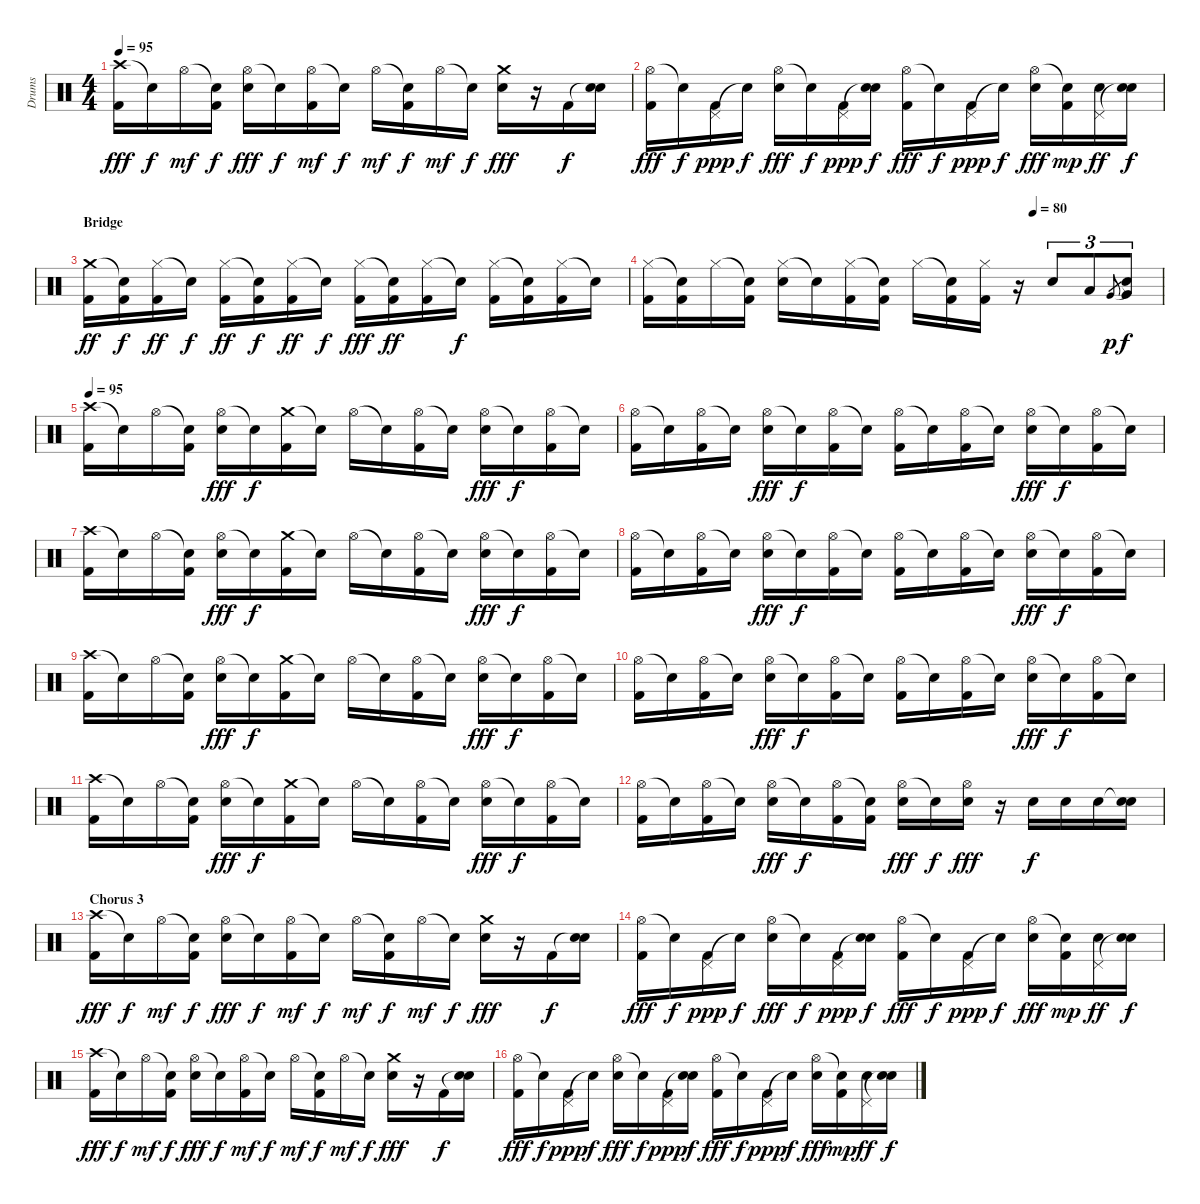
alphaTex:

\track ("Drums" "Drums") {instrument percussion}
\staff {score}
\articulation defaults
\ts (4 4)
\tempo 95
\clef neutral
\ks c
("Crash high (hit)" "Kick (hit) 2").16{dy fff} "Snare (hit)"{t}.16{dy f} "Hi-Hat (open)".16{dy mf} ("Snare (hit)"{t} "Kick (hit) 2").16{dy f} ("Hi-Hat (open)" "Electric Snare (hit)").16{dy fff} "Snare (hit)"{t}.16{dy f} ("Hi-Hat (open)" "Kick (hit) 2").16{dy mf} "Snare (hit)"{t}.16{dy f} "Hi-Hat (open)".16{dy mf} ("Snare (hit)"{t} "Kick (hit) 2").16{dy f} "Hi-Hat (open)".16{dy mf} "Snare (hit)"{t}.16{dy f} ("Crash medium (hit)" "Electric Snare (hit)").16{dy fff} r.16 "Kick (hit) 2".16{dy f} ("Snare (hit)"{t} "Electric Snare (hit)").16 |
("Hi-Hat (open)" "Kick (hit) 2").16{dy fff} "Snare (hit)"{t}.16{dy f} ("Pedal Hi-Hat (hit)" "Kick (hit) 2").16{dy ppp} "Snare (hit)"{t}.16{dy f} ("Hi-Hat (open)" "Electric Snare (hit)").16{dy fff} "Snare (hit)"{t}.16{dy f} ("Pedal Hi-Hat (hit)" "Kick (hit) 2").16{dy ppp} ("Snare (hit)"{t} "Electric Snare (hit)").16{dy f} ("Hi-Hat (open)" "Kick (hit) 2").16{dy fff} "Snare (hit)"{t}.16{dy f} ("Pedal Hi-Hat (hit)" "Kick (hit) 2").16{dy ppp} "Snare (hit)"{t}.16{dy f} ("Hi-Hat (open)" "Electric Snare (hit)").16{dy fff} ("Snare (hit)"{t} "Kick (hit) 2").16{dy mp} ("Pedal Hi-Hat (hit)" "Electric Snare (hit)").16{dy ff} ("Snare (hit)"{t} "Electric Snare (hit)").16{dy f} |
\section ("" "Bridge")
("Crash medium (hit)" "Kick (hit) 2").16{dy ff} ("Snare (hit)"{t} "Kick (hit) 2").16{dy f} ("Hi-Hat (closed)" "Kick (hit) 2").16{dy ff} "Snare (hit)"{t}.16{dy f} ("Hi-Hat (closed)" "Kick (hit) 2").16{dy ff} ("Snare (hit)"{t} "Kick (hit) 2").16{dy f} ("Hi-Hat (closed)" "Kick (hit) 2").16{dy ff} "Snare (hit)"{t}.16{dy f} ("Hi-Hat (closed)" "Kick (hit) 2").16{dy fff} ("Snare (hit)"{t} "Kick (hit) 2").16{dy ff} ("Hi-Hat (closed)" "Kick (hit) 2").16 "Snare (hit)"{t}.16{dy f} ("Hi-Hat (closed)" "Kick (hit) 2").16 ("Snare (hit)"{t} "Kick (hit) 2").16 ("Hi-Hat (closed)" "Kick (hit) 2").16 "Snare (hit)"{t}.16 |
\tempo (80 0.75)
("Hi-Hat (closed)" "Kick (hit) 2").16 ("Snare (hit)"{t} "Kick (hit) 2").16 "Hi-Hat (closed)".16 ("Snare (hit)"{t} "Kick (hit) 2").16 ("Hi-Hat (closed)" "Electric Snare (hit)").16 "Snare (hit)"{t}.16 ("Hi-Hat (closed)" "Kick (hit) 2").16 ("Snare (hit)"{t} "Kick (hit) 2").16 "Hi-Hat (closed)".16 ("Snare (hit)"{t} "Kick (hit) 2").16 ("Hi-Hat (closed)" "Kick (hit) 2").16 r.16 "Electric Snare (hit)".8{tu (3 2)} "Low Tom (hit)".8{tu (3 2)} "Very Low Tom (hit)".8{gr dy p} ("Snare (hit)"{t} "Very Low Tom (hit)").8{tu (3 2) dy f} |
\tempo 95
("Crash high (hit)" "Kick (hit) 2").16 "Snare (hit)"{t}.16 "Hi-Hat (open)".16 ("Snare (hit)"{t} "Kick (hit) 2").16 ("Hi-Hat (open)" "Electric Snare (hit)").16{dy fff} "Snare (hit)"{t}.16{dy f} ("Crash medium (hit)" "Kick (hit) 2").16 "Snare (hit)"{t}.16 "Hi-Hat (open)".16 "Snare (hit)"{t}.16 ("Hi-Hat (open)" "Kick (hit) 2").16 "Snare (hit)"{t}.16 ("Hi-Hat (open)" "Electric Snare (hit)").16{dy fff} "Snare (hit)"{t}.16{dy f} ("Hi-Hat (open)" "Kick (hit) 2").16 "Snare (hit)"{t}.16 |
("Hi-Hat (open)" "Kick (hit) 2").16 "Snare (hit)"{t}.16 ("Hi-Hat (open)" "Kick (hit) 2").16 "Snare (hit)"{t}.16 ("Hi-Hat (open)" "Electric Snare (hit)").16{dy fff} "Snare (hit)"{t}.16{dy f} ("Hi-Hat (open)" "Kick (hit) 2").16 "Snare (hit)"{t}.16 ("Hi-Hat (open)" "Kick (hit) 2").16 "Snare (hit)"{t}.16 ("Hi-Hat (open)" "Kick (hit) 2").16 "Snare (hit)"{t}.16 ("Hi-Hat (open)" "Electric Snare (hit)").16{dy fff} "Snare (hit)"{t}.16{dy f} ("Hi-Hat (open)" "Kick (hit) 2").16 "Snare (hit)"{t}.16 |
("Crash high (hit)" "Kick (hit) 2").16 "Snare (hit)"{t}.16 "Hi-Hat (open)".16 ("Snare (hit)"{t} "Kick (hit) 2").16 ("Hi-Hat (open)" "Electric Snare (hit)").16{dy fff} "Snare (hit)"{t}.16{dy f} ("Crash medium (hit)" "Kick (hit) 2").16 "Snare (hit)"{t}.16 "Hi-Hat (open)".16 "Snare (hit)"{t}.16 ("Hi-Hat (open)" "Kick (hit) 2").16 "Snare (hit)"{t}.16 ("Hi-Hat (open)" "Electric Snare (hit)").16{dy fff} "Snare (hit)"{t}.16{dy f} ("Hi-Hat (open)" "Kick (hit) 2").16 "Snare (hit)"{t}.16 |
("Hi-Hat (open)" "Kick (hit) 2").16 "Snare (hit)"{t}.16 ("Hi-Hat (open)" "Kick (hit) 2").16 "Snare (hit)"{t}.16 ("Hi-Hat (open)" "Electric Snare (hit)").16{dy fff} "Snare (hit)"{t}.16{dy f} ("Hi-Hat (open)" "Kick (hit) 2").16 "Snare (hit)"{t}.16 ("Hi-Hat (open)" "Kick (hit) 2").16 "Snare (hit)"{t}.16 ("Hi-Hat (open)" "Kick (hit) 2").16 "Snare (hit)"{t}.16 ("Hi-Hat (open)" "Electric Snare (hit)").16{dy fff} "Snare (hit)"{t}.16{dy f} ("Hi-Hat (open)" "Kick (hit) 2").16 "Snare (hit)"{t}.16 |
("Crash high (hit)" "Kick (hit) 2").16 "Snare (hit)"{t}.16 "Hi-Hat (open)".16 ("Snare (hit)"{t} "Kick (hit) 2").16 ("Hi-Hat (open)" "Electric Snare (hit)").16{dy fff} "Snare (hit)"{t}.16{dy f} ("Crash medium (hit)" "Kick (hit) 2").16 "Snare (hit)"{t}.16 "Hi-Hat (open)".16 "Snare (hit)"{t}.16 ("Hi-Hat (open)" "Kick (hit) 2").16 "Snare (hit)"{t}.16 ("Hi-Hat (open)" "Electric Snare (hit)").16{dy fff} "Snare (hit)"{t}.16{dy f} ("Hi-Hat (open)" "Kick (hit) 2").16 "Snare (hit)"{t}.16 |
("Hi-Hat (open)" "Kick (hit) 2").16 "Snare (hit)"{t}.16 ("Hi-Hat (open)" "Kick (hit) 2").16 "Snare (hit)"{t}.16 ("Hi-Hat (open)" "Electric Snare (hit)").16{dy fff} "Snare (hit)"{t}.16{dy f} ("Hi-Hat (open)" "Kick (hit) 2").16 "Snare (hit)"{t}.16 ("Hi-Hat (open)" "Kick (hit) 2").16 "Snare (hit)"{t}.16 ("Hi-Hat (open)" "Kick (hit) 2").16 "Snare (hit)"{t}.16 ("Hi-Hat (open)" "Electric Snare (hit)").16{dy fff} "Snare (hit)"{t}.16{dy f} ("Hi-Hat (open)" "Kick (hit) 2").16 "Snare (hit)"{t}.16 |
("Crash high (hit)" "Kick (hit) 2").16 "Snare (hit)"{t}.16 "Hi-Hat (open)".16 ("Snare (hit)"{t} "Kick (hit) 2").16 ("Hi-Hat (open)" "Electric Snare (hit)").16{dy fff} "Snare (hit)"{t}.16{dy f} ("Crash medium (hit)" "Kick (hit) 2").16 "Snare (hit)"{t}.16 "Hi-Hat (open)".16 "Snare (hit)"{t}.16 ("Hi-Hat (open)" "Kick (hit) 2").16 "Snare (hit)"{t}.16 ("Hi-Hat (open)" "Electric Snare (hit)").16{dy fff} "Snare (hit)"{t}.16{dy f} ("Hi-Hat (open)" "Kick (hit) 2").16 "Snare (hit)"{t}.16 |
("Hi-Hat (open)" "Kick (hit) 2").16 "Snare (hit)"{t}.16 ("Hi-Hat (open)" "Kick (hit) 2").16 "Snare (hit)"{t}.16 ("Hi-Hat (open)" "Electric Snare (hit)").16{dy fff} "Snare (hit)"{t}.16{dy f} ("Hi-Hat (open)" "Kick (hit) 2").16 ("Snare (hit)"{t} "Kick (hit) 2").16 ("Hi-Hat (open)" "Electric Snare (hit)").16{dy fff} "Snare (hit)"{t}.16{dy f} ("Hi-Hat (open)" "Electric Snare (hit)").16{dy fff} r.16 "Electric Snare (hit)".16{dy f} "Electric Snare (hit)".16 "Electric Snare (hit)".16 ("Snare (hit)"{t} "Electric Snare (hit)").16 |
\section ("" "Chorus 3")
("Crash high (hit)" "Kick (hit) 2").16{dy fff} "Snare (hit)"{t}.16{dy f} "Hi-Hat (open)".16{dy mf} ("Snare (hit)"{t} "Kick (hit) 2").16{dy f} ("Hi-Hat (open)" "Electric Snare (hit)").16{dy fff} "Snare (hit)"{t}.16{dy f} ("Hi-Hat (open)" "Kick (hit) 2").16{dy mf} "Snare (hit)"{t}.16{dy f} "Hi-Hat (open)".16{dy mf} ("Snare (hit)"{t} "Kick (hit) 2").16{dy f} "Hi-Hat (open)".16{dy mf} "Snare (hit)"{t}.16{dy f} ("Crash medium (hit)" "Electric Snare (hit)").16{dy fff} r.16 "Kick (hit) 2".16{dy f} ("Snare (hit)"{t} "Electric Snare (hit)").16 |
("Hi-Hat (open)" "Kick (hit) 2").16{dy fff} "Snare (hit)"{t}.16{dy f} ("Pedal Hi-Hat (hit)" "Kick (hit) 2").16{dy ppp} "Snare (hit)"{t}.16{dy f} ("Hi-Hat (open)" "Electric Snare (hit)").16{dy fff} "Snare (hit)"{t}.16{dy f} ("Pedal Hi-Hat (hit)" "Kick (hit) 2").16{dy ppp} ("Snare (hit)"{t} "Electric Snare (hit)").16{dy f} ("Hi-Hat (open)" "Kick (hit) 2").16{dy fff} "Snare (hit)"{t}.16{dy f} ("Pedal Hi-Hat (hit)" "Kick (hit) 2").16{dy ppp} "Snare (hit)"{t}.16{dy f} ("Hi-Hat (open)" "Electric Snare (hit)").16{dy fff} ("Snare (hit)"{t} "Kick (hit) 2").16{dy mp} ("Pedal Hi-Hat (hit)" "Electric Snare (hit)").16{dy ff} ("Snare (hit)"{t} "Electric Snare (hit)").16{dy f} |
("Crash high (hit)" "Kick (hit) 2").16{dy fff} "Snare (hit)"{t}.16{dy f} "Hi-Hat (open)".16{dy mf} ("Snare (hit)"{t} "Kick (hit) 2").16{dy f} ("Hi-Hat (open)" "Electric Snare (hit)").16{dy fff} "Snare (hit)"{t}.16{dy f} ("Hi-Hat (open)" "Kick (hit) 2").16{dy mf} "Snare (hit)"{t}.16{dy f} "Hi-Hat (open)".16{dy mf} ("Snare (hit)"{t} "Kick (hit) 2").16{dy f} "Hi-Hat (open)".16{dy mf} "Snare (hit)"{t}.16{dy f} ("Crash medium (hit)" "Electric Snare (hit)").16{dy fff} r.16 "Kick (hit) 2".16{dy f} ("Snare (hit)"{t} "Electric Snare (hit)").16 |
("Hi-Hat (open)" "Kick (hit) 2").16{dy fff} "Snare (hit)"{t}.16{dy f} ("Pedal Hi-Hat (hit)" "Kick (hit) 2").16{dy ppp} "Snare (hit)"{t}.16{dy f} ("Hi-Hat (open)" "Electric Snare (hit)").16{dy fff} "Snare (hit)"{t}.16{dy f} ("Pedal Hi-Hat (hit)" "Kick (hit) 2").16{dy ppp} ("Snare (hit)"{t} "Electric Snare (hit)").16{dy f} ("Hi-Hat (open)" "Kick (hit) 2").16{dy fff} "Snare (hit)"{t}.16{dy f} ("Pedal Hi-Hat (hit)" "Kick (hit) 2").16{dy ppp} "Snare (hit)"{t}.16{dy f} ("Hi-Hat (open)" "Electric Snare (hit)").16{dy fff} ("Snare (hit)"{t} "Kick (hit) 2").16{dy mp} ("Pedal Hi-Hat (hit)" "Electric Snare (hit)").16{dy ff} ("Snare (hit)"{t} "Electric Snare (hit)").16{dy f}
